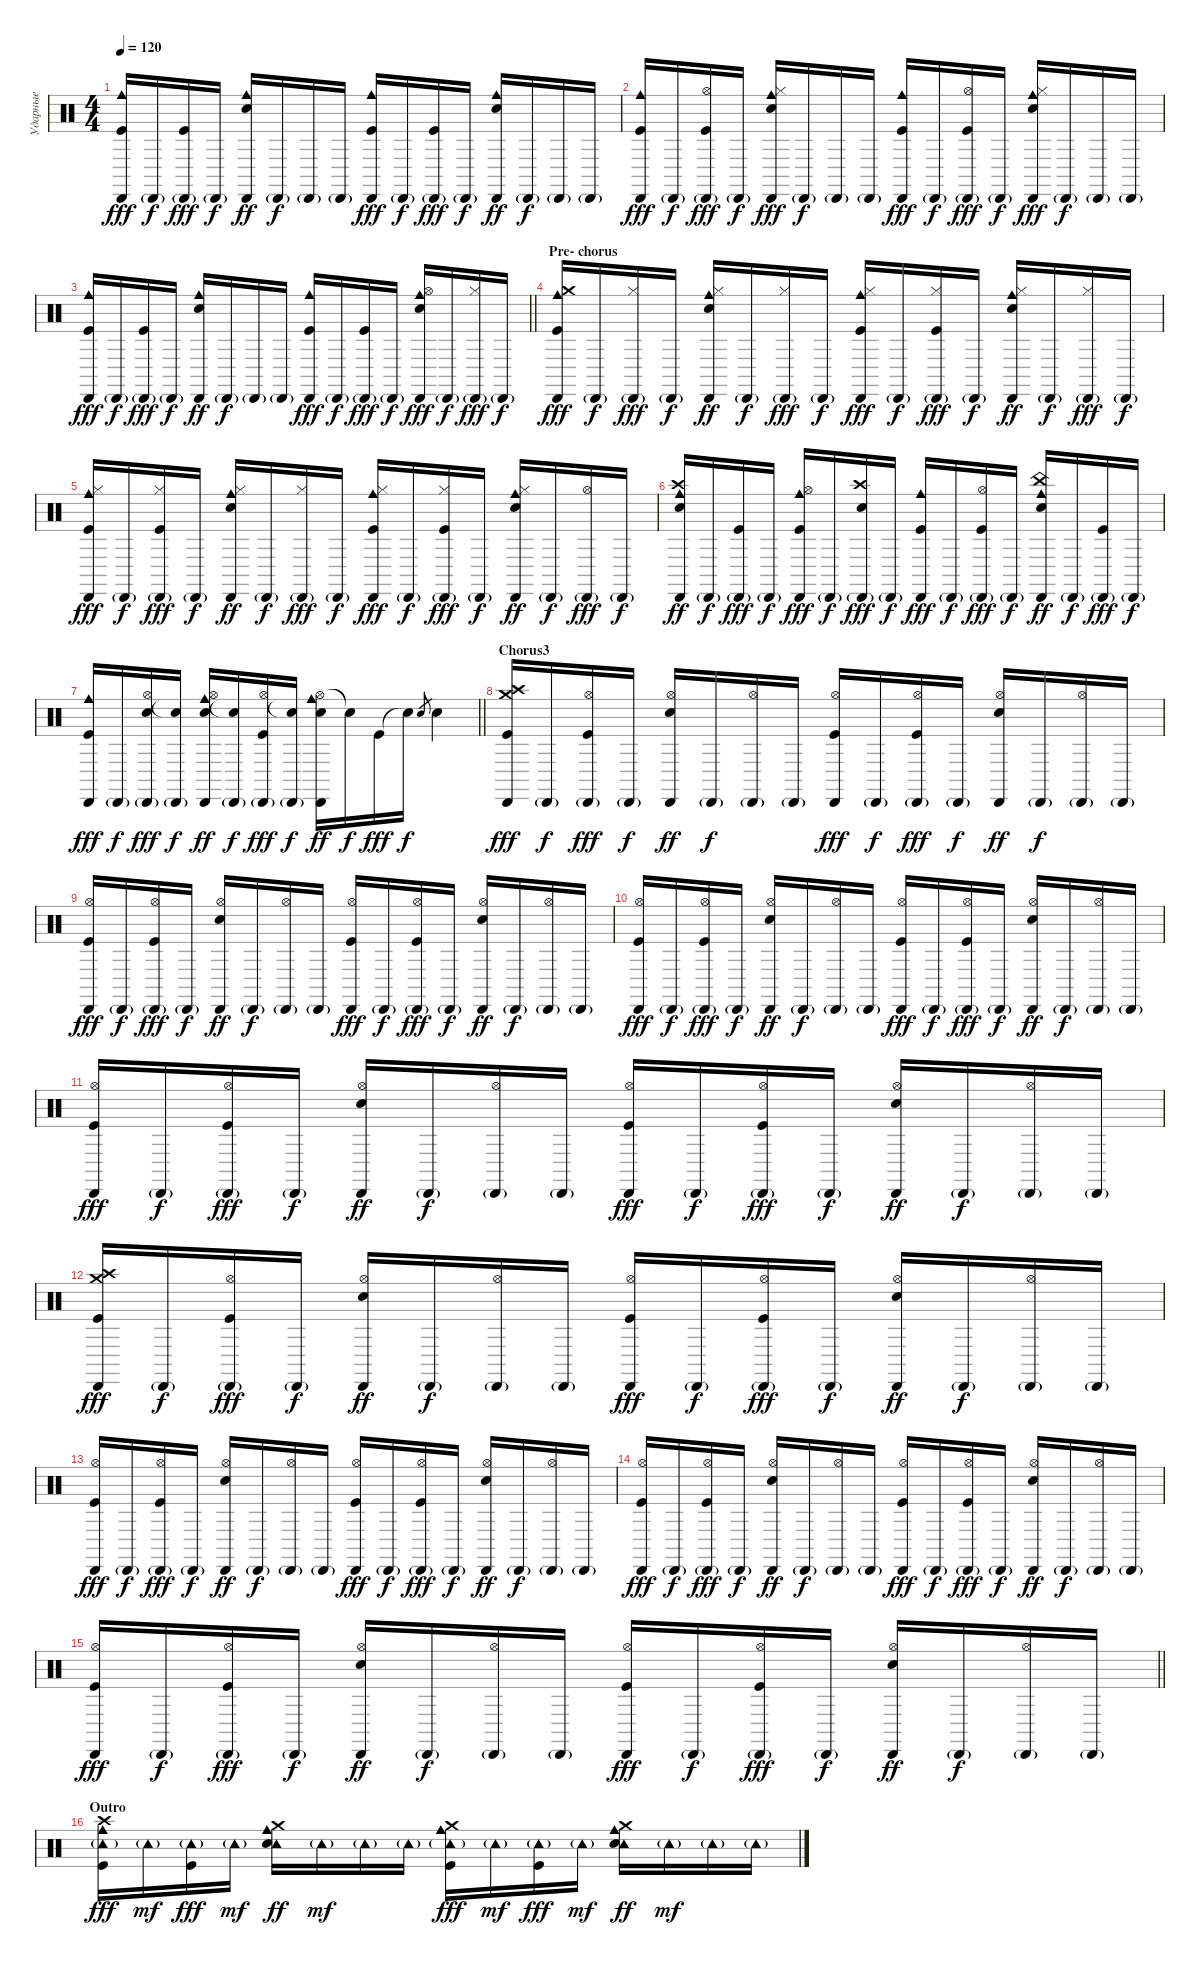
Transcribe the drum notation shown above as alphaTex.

\track ("Ударные" "Ударные") {instrument percussion}
\staff {score}
\articulation defaults
\ts (4 4)
\tempo 120
\clef neutral
\ks c
("Cowbell medium (hit)" "Cabasa (hit)" "Kick (hit)").16{dy fff} "Cabasa (hit)"{g}.16{dy f} ("Cabasa (hit)"{g} "Kick (hit)").16{dy fff} "Cabasa (hit)"{g}.16{dy f} ("Cowbell medium (hit)" "Cabasa (hit)" "Snare (hit) 2").16{dy ff} "Cabasa (hit)"{g}.16{dy f} "Cabasa (hit)"{g}.16 "Cabasa (hit)"{g}.16 ("Cowbell medium (hit)" "Cabasa (hit)" "Kick (hit)").16{dy fff} "Cabasa (hit)"{g}.16{dy f} ("Cabasa (hit)"{g} "Kick (hit)").16{dy fff} "Cabasa (hit)"{g}.16{dy f} ("Cowbell medium (hit)" "Cabasa (hit)" "Snare (hit) 2").16{dy ff} "Cabasa (hit)"{g}.16{dy f} "Cabasa (hit)"{g}.16 "Cabasa (hit)"{g}.16 |
("Cowbell medium (hit)" "Cabasa (hit)" "Kick (hit)").16{dy fff} "Cabasa (hit)"{g}.16{dy f} ("Cabasa (hit)"{g} "Hi-Hat (open)" "Kick (hit)").16{dy fff} "Cabasa (hit)"{g}.16{dy f} ("Cowbell medium (hit)" "Cabasa (hit)" "Hi-Hat (closed)" "Snare (hit) 2").16{dy fff} "Cabasa (hit)"{g}.16{dy f} "Cabasa (hit)"{g}.16 "Cabasa (hit)"{g}.16 ("Cowbell medium (hit)" "Cabasa (hit)" "Kick (hit)").16{dy fff} "Cabasa (hit)"{g}.16{dy f} ("Cabasa (hit)"{g} "Hi-Hat (open)" "Kick (hit)").16{dy fff} "Cabasa (hit)"{g}.16{dy f} ("Cowbell medium (hit)" "Cabasa (hit)" "Hi-Hat (closed)" "Snare (hit) 2").16{dy fff} "Cabasa (hit)"{g}.16{dy f} "Cabasa (hit)"{g}.16 "Cabasa (hit)"{g}.16 |
\barLineRight lightlight
("Cowbell medium (hit)" "Cabasa (hit)" "Kick (hit)").16{dy fff} "Cabasa (hit)"{g}.16{dy f} ("Cabasa (hit)"{g} "Kick (hit)").16{dy fff} "Cabasa (hit)"{g}.16{dy f} ("Cowbell medium (hit)" "Cabasa (hit)" "Snare (hit) 2").16{dy ff} "Cabasa (hit)"{g}.16{dy f} "Cabasa (hit)"{g}.16 "Cabasa (hit)"{g}.16 ("Cowbell medium (hit)" "Cabasa (hit)" "Kick (hit)").16{dy fff} "Cabasa (hit)"{g}.16{dy f} ("Cabasa (hit)"{g} "Kick (hit)").16{dy fff} "Cabasa (hit)"{g}.16{dy f} ("Cowbell medium (hit)" "Cabasa (hit)" "Hi-Hat (open)" "Snare (hit) 2").16{dy fff} "Cabasa (hit)"{g}.16{dy f} ("Cabasa (hit)"{g} "Hi-Hat (closed)").16{dy fff} "Cabasa (hit)"{g}.16{dy f} |
\section ("" "Pre- chorus")
("Crash medium (hit)" "Cabasa (hit)" "Cowbell medium (hit)" "Kick (hit)").16{dy fff} "Cabasa (hit)"{g}.16{dy f} ("Hi-Hat (closed)" "Cabasa (hit)"{g}).16{dy fff} "Cabasa (hit)"{g}.16{dy f} ("Hi-Hat (closed)" "Cabasa (hit)" "Cowbell medium (hit)" "Snare (hit) 2").16{dy ff} "Cabasa (hit)"{g}.16{dy f} ("Hi-Hat (closed)" "Cabasa (hit)"{g}).16{dy fff} "Cabasa (hit)"{g}.16{dy f} ("Hi-Hat (closed)" "Cabasa (hit)" "Cowbell medium (hit)" "Kick (hit)").16{dy fff} "Cabasa (hit)"{g}.16{dy f} ("Hi-Hat (closed)" "Cabasa (hit)"{g} "Kick (hit)").16{dy fff} "Cabasa (hit)"{g}.16{dy f} ("Hi-Hat (closed)" "Cabasa (hit)" "Cowbell medium (hit)" "Snare (hit) 2").16{dy ff} "Cabasa (hit)"{g}.16{dy f} ("Hi-Hat (closed)" "Cabasa (hit)"{g}).16{dy fff} "Cabasa (hit)"{g}.16{dy f} |
("Hi-Hat (closed)" "Cabasa (hit)" "Cowbell medium (hit)" "Kick (hit)").16{dy fff} "Cabasa (hit)"{g}.16{dy f} ("Hi-Hat (closed)" "Cabasa (hit)"{g} "Kick (hit)").16{dy fff} "Cabasa (hit)"{g}.16{dy f} ("Hi-Hat (closed)" "Cabasa (hit)" "Cowbell medium (hit)" "Snare (hit) 2").16{dy ff} "Cabasa (hit)"{g}.16{dy f} ("Hi-Hat (closed)" "Cabasa (hit)"{g}).16{dy fff} "Cabasa (hit)"{g}.16{dy f} ("Hi-Hat (closed)" "Cabasa (hit)" "Cowbell medium (hit)" "Kick (hit)").16{dy fff} "Cabasa (hit)"{g}.16{dy f} ("Hi-Hat (closed)" "Cabasa (hit)"{g} "Kick (hit)").16{dy fff} "Cabasa (hit)"{g}.16{dy f} ("Hi-Hat (closed)" "Cabasa (hit)" "Cowbell medium (hit)" "Snare (hit) 2").16{dy ff} "Cabasa (hit)"{g}.16{dy f} ("Hi-Hat (open)" "Cabasa (hit)"{g}).16{dy fff} "Cabasa (hit)"{g}.16{dy f} |
("Crash high (hit)" "Cabasa (hit)" "Cowbell medium (hit)" "Snare (hit) 2").16{dy ff} "Cabasa (hit)"{g}.16{dy f} ("Cabasa (hit)"{g} "Kick (hit)").16{dy fff} "Cabasa (hit)"{g}.16{dy f} ("Hi-Hat (open)" "Cabasa (hit)" "Cowbell medium (hit)" "Kick (hit)").16{dy fff} "Cabasa (hit)"{g}.16{dy f} ("Crash high (hit)" "Cabasa (hit)"{g} "Snare (hit) 2").16{dy fff} "Cabasa (hit)"{g}.16{dy f} ("Cabasa (hit)" "Cowbell medium (hit)" "Kick (hit)").16{dy fff} "Cabasa (hit)"{g}.16{dy f} ("Hi-Hat (open)" "Cabasa (hit)"{g} "Kick (hit)").16{dy fff} "Cabasa (hit)"{g}.16{dy f} ("China (hit)" "Cabasa (hit)" "Cowbell medium (hit)" "Snare (hit) 2").16{dy ff} "Cabasa (hit)"{g}.16{dy f} ("Cabasa (hit)"{g} "Kick (hit)").16{dy fff} "Cabasa (hit)"{g}.16{dy f} |
\barLineRight lightlight
("Cabasa (hit)" "Cowbell medium (hit)" "Kick (hit)").16{dy fff} "Cabasa (hit)"{g}.16{dy f} ("Hi-Hat (open)" "Cabasa (hit)"{g} "Snare (hit) 2").16{dy fff} ("Snare (hit)"{t} "Cabasa (hit)"{g}).16{dy f} ("Hi-Hat (open)" "Cabasa (hit)" "Cowbell medium (hit)" "Snare (hit) 2").16{dy ff} ("Snare (hit)"{t} "Cabasa (hit)"{g}).16{dy f} ("Hi-Hat (open)" "Cabasa (hit)"{g} "Kick (hit)").16{dy fff} ("Snare (hit)"{t} "Cabasa (hit)"{g}).16{dy f} ("Hi-Hat (open)" "Cabasa (hit)" "Cowbell medium (hit)" "Snare (hit) 2").16{dy ff} "Snare (hit)"{t}.16{dy f} "Kick (hit)".16{dy fff} "Snare (hit)"{t}.16{dy f} "Snare (hit) 2".8{gr} "Snare (hit) 2".4 |
\section ("" "Chorus3")
("Crash medium (hit)" "Cabasa (hit)" "Crash high (hit)" "Kick (hit)").16{dy fff} "Cabasa (hit)"{g}.16{dy f} ("Hi-Hat (open)" "Cabasa (hit)"{g} "Kick (hit)").16{dy fff} "Cabasa (hit)"{g}.16{dy f} ("Hi-Hat (open)" "Cabasa (hit)" "Snare (hit) 2").16{dy ff} "Cabasa (hit)"{g}.16{dy f} ("Hi-Hat (open)" "Cabasa (hit)"{g}).16 "Cabasa (hit)"{g}.16 ("Hi-Hat (open)" "Cabasa (hit)" "Kick (hit)").16{dy fff} "Cabasa (hit)"{g}.16{dy f} ("Hi-Hat (open)" "Cabasa (hit)"{g} "Kick (hit)").16{dy fff} "Cabasa (hit)"{g}.16{dy f} ("Hi-Hat (open)" "Cabasa (hit)" "Snare (hit) 2").16{dy ff} "Cabasa (hit)"{g}.16{dy f} ("Hi-Hat (open)" "Cabasa (hit)"{g}).16 "Cabasa (hit)"{g}.16 |
("Hi-Hat (open)" "Cabasa (hit)" "Kick (hit)").16{dy fff} "Cabasa (hit)"{g}.16{dy f} ("Hi-Hat (open)" "Cabasa (hit)"{g} "Kick (hit)").16{dy fff} "Cabasa (hit)"{g}.16{dy f} ("Hi-Hat (open)" "Cabasa (hit)" "Snare (hit) 2").16{dy ff} "Cabasa (hit)"{g}.16{dy f} ("Hi-Hat (open)" "Cabasa (hit)"{g}).16 "Cabasa (hit)"{g}.16 ("Hi-Hat (open)" "Cabasa (hit)" "Kick (hit)").16{dy fff} "Cabasa (hit)"{g}.16{dy f} ("Hi-Hat (open)" "Cabasa (hit)"{g} "Kick (hit)").16{dy fff} "Cabasa (hit)"{g}.16{dy f} ("Hi-Hat (open)" "Cabasa (hit)" "Snare (hit) 2").16{dy ff} "Cabasa (hit)"{g}.16{dy f} ("Hi-Hat (open)" "Cabasa (hit)"{g}).16 "Cabasa (hit)"{g}.16 |
("Hi-Hat (open)" "Cabasa (hit)" "Kick (hit)").16{dy fff} "Cabasa (hit)"{g}.16{dy f} ("Hi-Hat (open)" "Cabasa (hit)"{g} "Kick (hit)").16{dy fff} "Cabasa (hit)"{g}.16{dy f} ("Hi-Hat (open)" "Cabasa (hit)" "Snare (hit) 2").16{dy ff} "Cabasa (hit)"{g}.16{dy f} ("Hi-Hat (open)" "Cabasa (hit)"{g}).16 "Cabasa (hit)"{g}.16 ("Hi-Hat (open)" "Cabasa (hit)" "Kick (hit)").16{dy fff} "Cabasa (hit)"{g}.16{dy f} ("Hi-Hat (open)" "Cabasa (hit)"{g} "Kick (hit)").16{dy fff} "Cabasa (hit)"{g}.16{dy f} ("Hi-Hat (open)" "Cabasa (hit)" "Snare (hit) 2").16{dy ff} "Cabasa (hit)"{g}.16{dy f} ("Hi-Hat (open)" "Cabasa (hit)"{g}).16 "Cabasa (hit)"{g}.16 |
("Hi-Hat (open)" "Cabasa (hit)" "Kick (hit)").16{dy fff} "Cabasa (hit)"{g}.16{dy f} ("Hi-Hat (open)" "Cabasa (hit)"{g} "Kick (hit)").16{dy fff} "Cabasa (hit)"{g}.16{dy f} ("Hi-Hat (open)" "Cabasa (hit)" "Snare (hit) 2").16{dy ff} "Cabasa (hit)"{g}.16{dy f} ("Hi-Hat (open)" "Cabasa (hit)"{g}).16 "Cabasa (hit)"{g}.16 ("Hi-Hat (open)" "Cabasa (hit)" "Kick (hit)").16{dy fff} "Cabasa (hit)"{g}.16{dy f} ("Hi-Hat (open)" "Cabasa (hit)"{g} "Kick (hit)").16{dy fff} "Cabasa (hit)"{g}.16{dy f} ("Hi-Hat (open)" "Cabasa (hit)" "Snare (hit) 2").16{dy ff} "Cabasa (hit)"{g}.16{dy f} ("Hi-Hat (open)" "Cabasa (hit)"{g}).16 "Cabasa (hit)"{g}.16 |
("Crash medium (hit)" "Cabasa (hit)" "Crash high (hit)" "Kick (hit)").16{dy fff} "Cabasa (hit)"{g}.16{dy f} ("Hi-Hat (open)" "Cabasa (hit)"{g} "Kick (hit)").16{dy fff} "Cabasa (hit)"{g}.16{dy f} ("Hi-Hat (open)" "Cabasa (hit)" "Snare (hit) 2").16{dy ff} "Cabasa (hit)"{g}.16{dy f} ("Hi-Hat (open)" "Cabasa (hit)"{g}).16 "Cabasa (hit)"{g}.16 ("Hi-Hat (open)" "Cabasa (hit)" "Kick (hit)").16{dy fff} "Cabasa (hit)"{g}.16{dy f} ("Hi-Hat (open)" "Cabasa (hit)"{g} "Kick (hit)").16{dy fff} "Cabasa (hit)"{g}.16{dy f} ("Hi-Hat (open)" "Cabasa (hit)" "Snare (hit) 2").16{dy ff} "Cabasa (hit)"{g}.16{dy f} ("Hi-Hat (open)" "Cabasa (hit)"{g}).16 "Cabasa (hit)"{g}.16 |
("Hi-Hat (open)" "Cabasa (hit)" "Kick (hit)").16{dy fff} "Cabasa (hit)"{g}.16{dy f} ("Hi-Hat (open)" "Cabasa (hit)"{g} "Kick (hit)").16{dy fff} "Cabasa (hit)"{g}.16{dy f} ("Hi-Hat (open)" "Cabasa (hit)" "Snare (hit) 2").16{dy ff} "Cabasa (hit)"{g}.16{dy f} ("Hi-Hat (open)" "Cabasa (hit)"{g}).16 "Cabasa (hit)"{g}.16 ("Hi-Hat (open)" "Cabasa (hit)" "Kick (hit)").16{dy fff} "Cabasa (hit)"{g}.16{dy f} ("Hi-Hat (open)" "Cabasa (hit)"{g} "Kick (hit)").16{dy fff} "Cabasa (hit)"{g}.16{dy f} ("Hi-Hat (open)" "Cabasa (hit)" "Snare (hit) 2").16{dy ff} "Cabasa (hit)"{g}.16{dy f} ("Hi-Hat (open)" "Cabasa (hit)"{g}).16 "Cabasa (hit)"{g}.16 |
("Hi-Hat (open)" "Cabasa (hit)" "Kick (hit)").16{dy fff} "Cabasa (hit)"{g}.16{dy f} ("Hi-Hat (open)" "Cabasa (hit)"{g} "Kick (hit)").16{dy fff} "Cabasa (hit)"{g}.16{dy f} ("Hi-Hat (open)" "Cabasa (hit)" "Snare (hit) 2").16{dy ff} "Cabasa (hit)"{g}.16{dy f} ("Hi-Hat (open)" "Cabasa (hit)"{g}).16 "Cabasa (hit)"{g}.16 ("Hi-Hat (open)" "Cabasa (hit)" "Kick (hit)").16{dy fff} "Cabasa (hit)"{g}.16{dy f} ("Hi-Hat (open)" "Cabasa (hit)"{g} "Kick (hit)").16{dy fff} "Cabasa (hit)"{g}.16{dy f} ("Hi-Hat (open)" "Cabasa (hit)" "Snare (hit) 2").16{dy ff} "Cabasa (hit)"{g}.16{dy f} ("Hi-Hat (open)" "Cabasa (hit)"{g}).16 "Cabasa (hit)"{g}.16 |
\barLineRight lightlight
("Hi-Hat (open)" "Cabasa (hit)" "Kick (hit)").16{dy fff} "Cabasa (hit)"{g}.16{dy f} ("Hi-Hat (open)" "Cabasa (hit)"{g} "Kick (hit)").16{dy fff} "Cabasa (hit)"{g}.16{dy f} ("Hi-Hat (open)" "Cabasa (hit)" "Snare (hit) 2").16{dy ff} "Cabasa (hit)"{g}.16{dy f} ("Hi-Hat (open)" "Cabasa (hit)"{g}).16 "Cabasa (hit)"{g}.16 ("Hi-Hat (open)" "Cabasa (hit)" "Kick (hit)").16{dy fff} "Cabasa (hit)"{g}.16{dy f} ("Hi-Hat (open)" "Cabasa (hit)"{g} "Kick (hit)").16{dy fff} "Cabasa (hit)"{g}.16{dy f} ("Hi-Hat (open)" "Cabasa (hit)" "Snare (hit) 2").16{dy ff} "Cabasa (hit)"{g}.16{dy f} ("Hi-Hat (open)" "Cabasa (hit)"{g}).16 "Cabasa (hit)"{g}.16 |
\section ("" "Outro")
("Cowbell medium (hit)" "Tambourine (hit)"{g} "Crash high (hit)" "Kick (hit)").16{dy fff} "Tambourine (hit)"{g}.16{dy mf} ("Tambourine (hit)"{g} "Kick (hit)").16{dy fff} "Tambourine (hit)"{g}.16{dy mf} ("Cowbell medium (hit)" "Tambourine (hit)" "Crash medium (hit)" "Snare (hit) 2").16{dy ff} "Tambourine (hit)"{g}.16{dy mf} "Tambourine (hit)"{g}.16 "Tambourine (hit)"{g}.16 ("Cowbell medium (hit)" "Tambourine (hit)"{g} "Crash medium (hit)" "Kick (hit)").16{dy fff} "Tambourine (hit)"{g}.16{dy mf} ("Tambourine (hit)"{g} "Kick (hit)").16{dy fff} "Tambourine (hit)"{g}.16{dy mf} ("Cowbell medium (hit)" "Tambourine (hit)" "Crash medium (hit)" "Snare (hit) 2").16{dy ff} "Tambourine (hit)"{g}.16{dy mf} "Tambourine (hit)"{g}.16 "Tambourine (hit)"{g}.16
